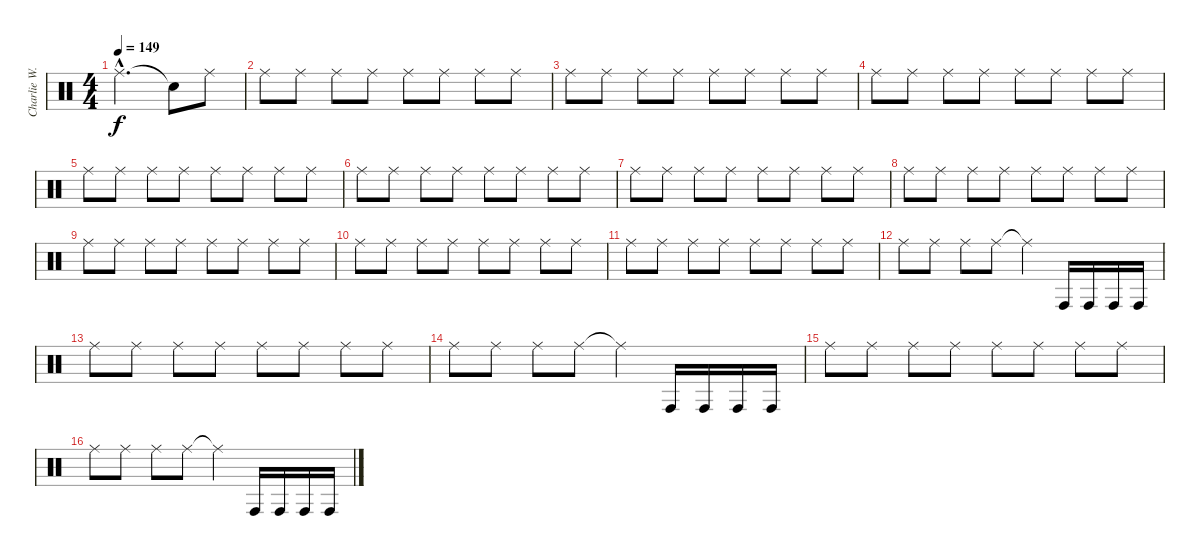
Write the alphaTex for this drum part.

\track ("Charlie W. drums" "Charlie W.") {instrument percussion}
\staff {score}
\articulation defaults
\ts (4 4)
\tempo 149
\clef neutral
\ks c "Ride (middle)"{hac}.2{d dy f} "Snare (hit)"{t}.8 "Ride (middle)".8
|
"Ride (middle)".8 "Ride (middle)".8 "Ride (middle)".8 "Ride (middle)".8 "Ride (middle)".8 "Ride (middle)".8 "Ride (middle)".8 "Ride (middle)".8 |
"Ride (middle)".8 "Ride (middle)".8 "Ride (middle)".8 "Ride (middle)".8 "Ride (middle)".8 "Ride (middle)".8 "Ride (middle)".8 "Ride (middle)".8 |
"Ride (middle)".8 "Ride (middle)".8 "Ride (middle)".8 "Ride (middle)".8 "Ride (middle)".8 "Ride (middle)".8 "Ride (middle)".8 "Ride (middle)".8 |
"Ride (middle)".8 "Ride (middle)".8 "Ride (middle)".8 "Ride (middle)".8 "Ride (middle)".8 "Ride (middle)".8 "Ride (middle)".8 "Ride (middle)".8 |
"Ride (middle)".8 "Ride (middle)".8 "Ride (middle)".8 "Ride (middle)".8 "Ride (middle)".8 "Ride (middle)".8 "Ride (middle)".8 "Ride (middle)".8 |
"Ride (middle)".8 "Ride (middle)".8 "Ride (middle)".8 "Ride (middle)".8 "Ride (middle)".8 "Ride (middle)".8 "Ride (middle)".8 "Ride (middle)".8 |
"Ride (middle)".8 "Ride (middle)".8 "Ride (middle)".8 "Ride (middle)".8 "Ride (middle)".8 "Ride (middle)".8 "Ride (middle)".8 "Ride (middle)".8 |
"Ride (middle)".8 "Ride (middle)".8 "Ride (middle)".8 "Ride (middle)".8 "Ride (middle)".8 "Ride (middle)".8 "Ride (middle)".8 "Ride (middle)".8 |
"Ride (middle)".8 "Ride (middle)".8 "Ride (middle)".8 "Ride (middle)".8 "Ride (middle)".8 "Ride (middle)".8 "Ride (middle)".8 "Ride (middle)".8 |
"Ride (middle)".8 "Ride (middle)".8 "Ride (middle)".8 "Ride (middle)".8 "Ride (middle)".8 "Ride (middle)".8 "Ride (middle)".8 "Ride (middle)".8 |
"Ride (middle)".8 "Ride (middle)".8 "Ride (middle)".8 "Ride (middle)".8 "Ride (middle)"{t}.4 "Conga high (hit)".16 "Conga high (hit)".16 "Conga high (hit)".16 "Conga high (hit)".16 |
"Ride (middle)".8 "Ride (middle)".8 "Ride (middle)".8 "Ride (middle)".8 "Ride (middle)".8 "Ride (middle)".8 "Ride (middle)".8 "Ride (middle)".8 |
"Ride (middle)".8 "Ride (middle)".8 "Ride (middle)".8 "Ride (middle)".8 "Ride (middle)"{t}.4 "Conga high (hit)".16 "Conga high (hit)".16 "Conga high (hit)".16 "Conga high (hit)".16 |
"Ride (middle)".8 "Ride (middle)".8 "Ride (middle)".8 "Ride (middle)".8 "Ride (middle)".8 "Ride (middle)".8 "Ride (middle)".8 "Ride (middle)".8 |
"Ride (middle)".8 "Ride (middle)".8 "Ride (middle)".8 "Ride (middle)".8 "Ride (middle)"{t}.4 "Conga high (hit)".16 "Conga high (hit)".16 "Conga high (hit)".16 "Conga high (hit)".16
